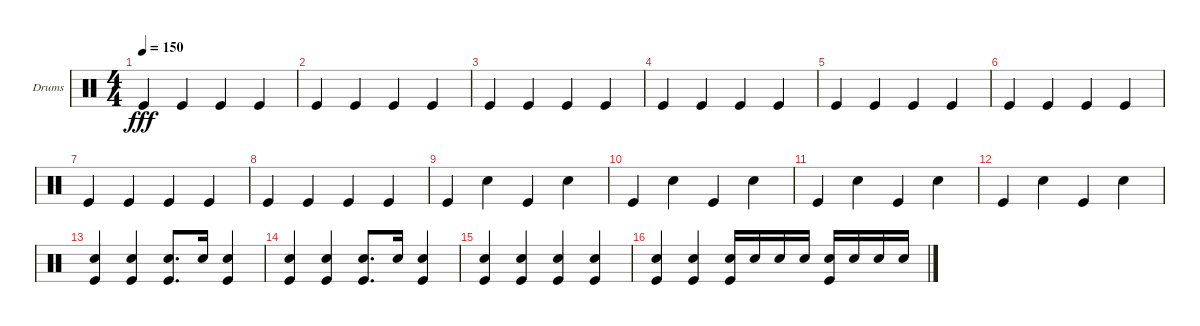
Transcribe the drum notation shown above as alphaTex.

\defaultSystemsLayout 4
\bracketExtendMode groupsimilarinstruments
\firstSystemTrackNameOrientation horizontal
\otherSystemsTrackNameOrientation horizontal
\track ("Helders" "Drums") {instrument percussion}
\staff {score}
\articulation defaults
\ts (4 4)
\tempo 150
\clef neutral
\ks c "Kick (hit)".4{dy fff} "Kick (hit)".4 "Kick (hit)".4 "Kick (hit)".4
|
"Kick (hit)".4 "Kick (hit)".4 "Kick (hit)".4 "Kick (hit)".4 |
"Kick (hit)".4 "Kick (hit)".4 "Kick (hit)".4 "Kick (hit)".4 |
"Kick (hit)".4 "Kick (hit)".4 "Kick (hit)".4 "Kick (hit)".4 |
"Kick (hit)".4 "Kick (hit)".4 "Kick (hit)".4 "Kick (hit)".4 |
"Kick (hit)".4 "Kick (hit)".4 "Kick (hit)".4 "Kick (hit)".4 |
"Kick (hit)".4 "Kick (hit)".4 "Kick (hit)".4 "Kick (hit)".4 |
"Kick (hit)".4 "Kick (hit)".4 "Kick (hit)".4 "Kick (hit)".4 |
"Kick (hit)".4 "Snare (hit) 2".4 "Kick (hit)".4 "Snare (hit) 2".4 |
"Kick (hit)".4 "Snare (hit) 2".4 "Kick (hit)".4 "Snare (hit) 2".4 |
"Kick (hit)".4 "Snare (hit) 2".4 "Kick (hit)".4 "Snare (hit) 2".4 |
"Kick (hit)".4 "Snare (hit) 2".4 "Kick (hit)".4 "Snare (hit) 2".4 |
("Snare (hit) 2" "Kick (hit)").4 ("Snare (hit) 2" "Kick (hit)").4 ("Snare (hit) 2" "Kick (hit)").8{d} "Snare (hit) 2".16 ("Kick (hit)" "Snare (hit) 2").4 |
("Snare (hit) 2" "Kick (hit)").4 ("Snare (hit) 2" "Kick (hit)").4 ("Snare (hit) 2" "Kick (hit)").8{d} "Snare (hit) 2".16 ("Kick (hit)" "Snare (hit) 2").4 |
("Snare (hit) 2" "Kick (hit)").4 ("Snare (hit) 2" "Kick (hit)").4 ("Snare (hit) 2" "Kick (hit)").4 ("Snare (hit) 2" "Kick (hit)").4 |
("Snare (hit) 2" "Kick (hit)").4 ("Snare (hit) 2" "Kick (hit)").4 ("Snare (hit) 2" "Kick (hit)").16 "Snare (hit) 2".16 "Snare (hit) 2".16 "Snare (hit) 2".16 ("Snare (hit) 2" "Kick (hit)").16 "Snare (hit) 2".16 "Snare (hit) 2".16 "Snare (hit) 2".16
